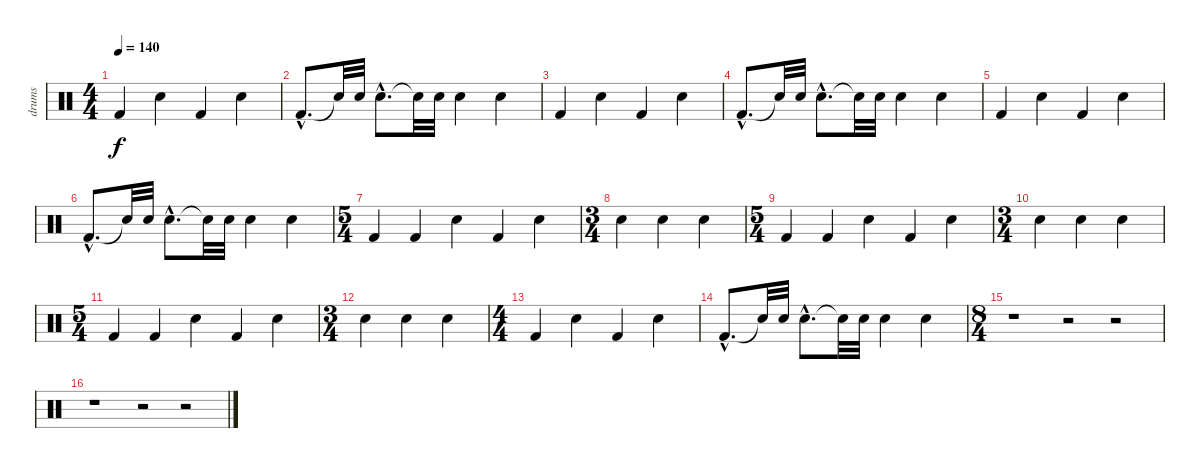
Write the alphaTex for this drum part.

\track ("drums" "drums") {instrument percussion}
\staff {score}
\articulation defaults
\ts (4 4)
\tempo 140
\clef neutral
\ks c "Kick (hit) 2".4{dy f} "Snare (hit) 2".4 "Kick (hit) 2".4 "Snare (hit) 2".4
|
"Kick (hit) 2"{hac}.8{d} "Snare (hit)"{t}.32 "Snare (hit) 2".32 "Snare (hit) 2"{hac}.8{d} "Snare (hit)"{t}.32 "Snare (hit) 2".32 "Snare (hit) 2".4 "Snare (hit) 2".4 |
"Kick (hit) 2".4 "Snare (hit) 2".4 "Kick (hit) 2".4 "Snare (hit) 2".4 |
"Kick (hit) 2"{hac}.8{d} "Snare (hit)"{t}.32 "Snare (hit) 2".32 "Snare (hit) 2"{hac}.8{d} "Snare (hit)"{t}.32 "Snare (hit) 2".32 "Snare (hit) 2".4 "Snare (hit) 2".4 |
"Kick (hit) 2".4 "Snare (hit) 2".4 "Kick (hit) 2".4 "Snare (hit) 2".4 |
"Kick (hit) 2"{hac}.8{d} "Snare (hit)"{t}.32 "Snare (hit) 2".32 "Snare (hit) 2"{hac}.8{d} "Snare (hit)"{t}.32 "Snare (hit) 2".32 "Snare (hit) 2".4 "Snare (hit) 2".4 |
\ts (5 4)
"Kick (hit) 2".4 "Kick (hit) 2".4 "Snare (hit) 2".4 "Kick (hit) 2".4 "Snare (hit) 2".4 |
\ts (3 4)
"Electric Snare (hit)".4 "Snare (hit) 2".4 "Electric Snare (hit)".4 |
\ts (5 4)
"Kick (hit) 2".4 "Kick (hit) 2".4 "Snare (hit) 2".4 "Kick (hit) 2".4 "Snare (hit) 2".4 |
\ts (3 4)
"Electric Snare (hit)".4 "Snare (hit) 2".4 "Electric Snare (hit)".4 |
\ts (5 4)
"Kick (hit) 2".4 "Kick (hit) 2".4 "Snare (hit) 2".4 "Kick (hit) 2".4 "Snare (hit) 2".4 |
\ts (3 4)
"Electric Snare (hit)".4 "Snare (hit) 2".4 "Electric Snare (hit)".4 |
\ts (4 4)
"Kick (hit) 2".4 "Snare (hit) 2".4 "Kick (hit) 2".4 "Snare (hit) 2".4 |
"Kick (hit) 2"{hac}.8{d} "Snare (hit)"{t}.32 "Snare (hit) 2".32 "Snare (hit) 2"{hac}.8{d} "Snare (hit)"{t}.32 "Snare (hit) 2".32 "Snare (hit) 2".4 "Snare (hit) 2".4 |
\ts (8 4)
r.1 r.2 r.2 |
r.1 r.2 r.2
